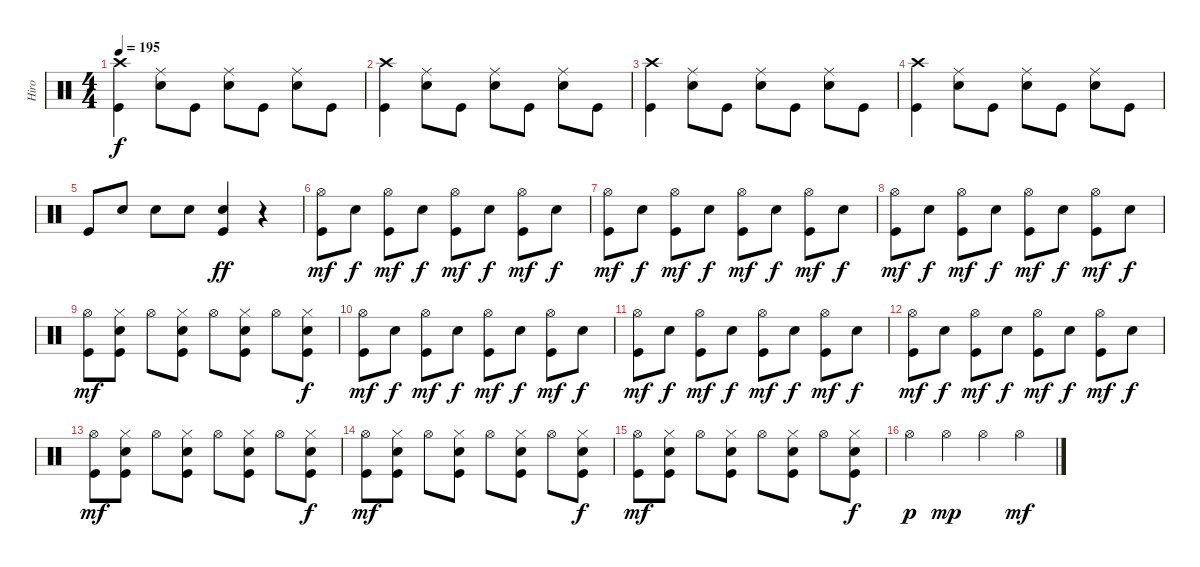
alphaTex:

\track ("Hiro" "Hiro") {instrument percussion}
\staff {score}
\articulation defaults
\ts (4 4)
\tempo 195
\clef neutral
\ks c
("Crash high (hit)" "Kick (hit)").4{dy f} ("Snare (hit) 2" "Ride (middle)").8 "Kick (hit)".8 ("Snare (hit) 2" "Ride (middle)").8 "Kick (hit)".8 ("Snare (hit) 2" "Ride (middle)").8 "Kick (hit)".8 |
("Kick (hit)" "Crash high (hit)").4 ("Ride (middle)" "Snare (hit) 2").8 "Kick (hit)".8 ("Ride (middle)" "Snare (hit) 2").8 "Kick (hit)".8 ("Ride (middle)" "Snare (hit) 2").8 "Kick (hit)".8 |
("Crash high (hit)" "Kick (hit)").4 ("Snare (hit) 2" "Ride (middle)").8 "Kick (hit)".8 ("Snare (hit) 2" "Ride (middle)").8 "Kick (hit)".8 ("Snare (hit) 2" "Ride (middle)").8 "Kick (hit)".8 |
("Kick (hit)" "Crash high (hit)").4 ("Ride (middle)" "Snare (hit) 2").8 "Kick (hit)".8 ("Ride (middle)" "Snare (hit) 2").8 "Kick (hit)".8 ("Ride (middle)" "Snare (hit) 2").8 "Kick (hit)".8 |
"Kick (hit)".8 "Snare (hit) 2".8 "Snare (hit) 2".8 "Snare (hit) 2".8 ("Snare (hit) 2" "Kick (hit)").4{dy ff} r.4 |
("Kick (hit)" "Hi-Hat (open)").8{dy mf} "Snare (hit) 2".8{dy f} ("Kick (hit)" "Hi-Hat (open)").8{dy mf} "Snare (hit) 2".8{dy f} ("Kick (hit)" "Hi-Hat (open)").8{dy mf} "Snare (hit) 2".8{dy f} ("Kick (hit)" "Hi-Hat (open)").8{dy mf} "Snare (hit) 2".8{dy f} |
("Kick (hit)" "Hi-Hat (open)").8{dy mf} "Snare (hit) 2".8{dy f} ("Kick (hit)" "Hi-Hat (open)").8{dy mf} "Snare (hit) 2".8{dy f} ("Kick (hit)" "Hi-Hat (open)").8{dy mf} "Snare (hit) 2".8{dy f} ("Kick (hit)" "Hi-Hat (open)").8{dy mf} "Snare (hit) 2".8{dy f} |
("Kick (hit)" "Hi-Hat (open)").8{dy mf} "Snare (hit) 2".8{dy f} ("Kick (hit)" "Hi-Hat (open)").8{dy mf} "Snare (hit) 2".8{dy f} ("Kick (hit)" "Hi-Hat (open)").8{dy mf} "Snare (hit) 2".8{dy f} ("Kick (hit)" "Hi-Hat (open)").8{dy mf} "Snare (hit) 2".8{dy f} |
("Hi-Hat (open)" "Kick (hit)").8{dy mf} ("Hi-Hat (closed)" "Kick (hit)" "Snare (hit) 2").8 "Hi-Hat (open)".8 ("Hi-Hat (closed)" "Kick (hit)" "Snare (hit) 2").8 "Hi-Hat (open)".8 ("Hi-Hat (closed)" "Kick (hit)" "Snare (hit) 2").8 "Hi-Hat (open)".8 ("Hi-Hat (closed)" "Kick (hit)" "Snare (hit) 2").8{dy f} |
("Kick (hit)" "Hi-Hat (open)").8{dy mf} "Snare (hit) 2".8{dy f} ("Kick (hit)" "Hi-Hat (open)").8{dy mf} "Snare (hit) 2".8{dy f} ("Kick (hit)" "Hi-Hat (open)").8{dy mf} "Snare (hit) 2".8{dy f} ("Kick (hit)" "Hi-Hat (open)").8{dy mf} "Snare (hit) 2".8{dy f} |
("Kick (hit)" "Hi-Hat (open)").8{dy mf} "Snare (hit) 2".8{dy f} ("Kick (hit)" "Hi-Hat (open)").8{dy mf} "Snare (hit) 2".8{dy f} ("Kick (hit)" "Hi-Hat (open)").8{dy mf} "Snare (hit) 2".8{dy f} ("Kick (hit)" "Hi-Hat (open)").8{dy mf} "Snare (hit) 2".8{dy f} |
("Kick (hit)" "Hi-Hat (open)").8{dy mf} "Snare (hit) 2".8{dy f} ("Kick (hit)" "Hi-Hat (open)").8{dy mf} "Snare (hit) 2".8{dy f} ("Kick (hit)" "Hi-Hat (open)").8{dy mf} "Snare (hit) 2".8{dy f} ("Kick (hit)" "Hi-Hat (open)").8{dy mf} "Snare (hit) 2".8{dy f} |
("Hi-Hat (open)" "Kick (hit)").8{dy mf} ("Hi-Hat (closed)" "Kick (hit)" "Snare (hit) 2").8 "Hi-Hat (open)".8 ("Hi-Hat (closed)" "Kick (hit)" "Snare (hit) 2").8 "Hi-Hat (open)".8 ("Hi-Hat (closed)" "Kick (hit)" "Snare (hit) 2").8 "Hi-Hat (open)".8 ("Hi-Hat (closed)" "Kick (hit)" "Snare (hit) 2").8{dy f} |
("Hi-Hat (open)" "Kick (hit)").8{dy mf} ("Hi-Hat (closed)" "Kick (hit)" "Snare (hit) 2").8 "Hi-Hat (open)".8 ("Hi-Hat (closed)" "Kick (hit)" "Snare (hit) 2").8 "Hi-Hat (open)".8 ("Hi-Hat (closed)" "Kick (hit)" "Snare (hit) 2").8 "Hi-Hat (open)".8 ("Hi-Hat (closed)" "Kick (hit)" "Snare (hit) 2").8{dy f} |
("Kick (hit)" "Hi-Hat (open)").8{dy mf} ("Snare (hit) 2" "Kick (hit)" "Hi-Hat (closed)").8 "Hi-Hat (open)".8 ("Snare (hit) 2" "Kick (hit)" "Hi-Hat (closed)").8 "Hi-Hat (open)".8 ("Snare (hit) 2" "Kick (hit)" "Hi-Hat (closed)").8 "Hi-Hat (open)".8 ("Snare (hit) 2" "Kick (hit)" "Hi-Hat (closed)").8{dy f} |
"Hi-Hat (open)".4{dy p} "Hi-Hat (open)".4{dy mp} "Hi-Hat (open)".4 "Hi-Hat (open)".4{dy mf}
